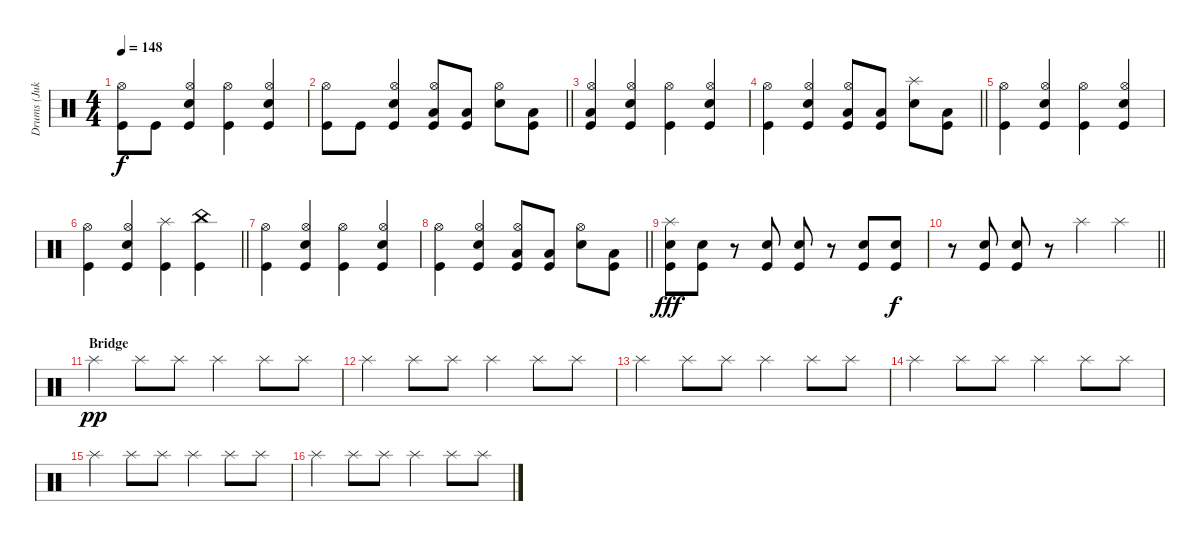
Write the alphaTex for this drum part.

\track ("Drums (Jukka)" "Drums (Juk") {instrument percussion}
\staff {score}
\articulation defaults
\ts (4 4)
\tempo 148
\clef neutral
\ks c
("Kick (hit)" "Hi-Hat (open)").8{dy f} "Kick (hit)".8 ("Kick (hit)" "Snare (hit) 2" "Hi-Hat (open)").4 ("Kick (hit)" "Hi-Hat (open)").4 ("Kick (hit)" "Snare (hit) 2" "Hi-Hat (open)").4 |
\barLineRight lightlight
("Kick (hit)" "Hi-Hat (open)").8 "Kick (hit)".8 ("Kick (hit)" "Snare (hit) 2" "Hi-Hat (open)").4 ("Kick (hit)" "Low Floor Tom (hit)" "Hi-Hat (open)").8 ("Kick (hit)" "Low Floor Tom (hit)").8 ("Snare (hit) 2" "Hi-Hat (open)").8 ("Kick (hit)" "Low Floor Tom (hit)").8 |
("Kick (hit)" "Low Floor Tom (hit)" "Hi-Hat (open)").4 ("Kick (hit)" "Snare (hit) 2" "Hi-Hat (open)").4 ("Kick (hit)" "Hi-Hat (open)").4 ("Kick (hit)" "Snare (hit) 2" "Hi-Hat (open)").4 |
\barLineRight lightlight
("Kick (hit)" "Hi-Hat (open)").4 ("Kick (hit)" "Snare (hit) 2" "Hi-Hat (open)").4 ("Kick (hit)" "Low Floor Tom (hit)" "Hi-Hat (open)").8 ("Kick (hit)" "Low Floor Tom (hit)").8 ("Snare (hit) 2" "Splash (hit)").8 ("Kick (hit)" "Low Floor Tom (hit)").8 |
("Kick (hit)" "Hi-Hat (open)").4 ("Kick (hit)" "Snare (hit) 2" "Hi-Hat (open)").4 ("Kick (hit)" "Hi-Hat (open)").4 ("Kick (hit)" "Snare (hit) 2" "Hi-Hat (open)").4 |
\barLineRight lightlight
("Kick (hit)" "Hi-Hat (open)").4 ("Kick (hit)" "Snare (hit) 2" "Hi-Hat (open)").4 ("Kick (hit)" "Splash (hit)").4 ("Kick (hit)" "China (hit)").4 |
("Kick (hit)" "Hi-Hat (open)").4 ("Kick (hit)" "Snare (hit) 2" "Hi-Hat (open)").4 ("Kick (hit)" "Hi-Hat (open)").4 ("Kick (hit)" "Snare (hit) 2" "Hi-Hat (open)").4 |
\barLineRight lightlight
("Kick (hit)" "Hi-Hat (open)").4 ("Kick (hit)" "Snare (hit) 2" "Hi-Hat (open)").4 ("Kick (hit)" "Low Floor Tom (hit)" "Hi-Hat (open)").8 ("Kick (hit)" "Low Floor Tom (hit)").8 ("Snare (hit) 2" "Hi-Hat (open)").8 ("Kick (hit)" "Low Floor Tom (hit)").8 |
("Kick (hit)" "Snare (hit) 2" "Splash (hit)").8{dy fff} ("Kick (hit)" "Snare (hit) 2").8 r.8 ("Kick (hit)" "Snare (hit) 2").8 ("Kick (hit)" "Snare (hit) 2").8 r.8 ("Kick (hit)" "Snare (hit) 2").8 ("Kick (hit)" "Snare (hit) 2").8{dy f} |
\barLineRight lightlight
r.8 ("Kick (hit)" "Snare (hit) 2").8 ("Kick (hit)" "Snare (hit) 2").8 r.8 "Splash (hit)".4 "Splash (hit)".4 |
\section ("" "Bridge")
"Splash (hit)".4{dy pp} "Splash (hit)".8 "Splash (hit)".8 "Splash (hit)".4 "Splash (hit)".8 "Splash (hit)".8 |
"Splash (hit)".4 "Splash (hit)".8 "Splash (hit)".8 "Splash (hit)".4 "Splash (hit)".8 "Splash (hit)".8 |
"Splash (hit)".4 "Splash (hit)".8 "Splash (hit)".8 "Splash (hit)".4 "Splash (hit)".8 "Splash (hit)".8 |
"Splash (hit)".4 "Splash (hit)".8 "Splash (hit)".8 "Splash (hit)".4 "Splash (hit)".8 "Splash (hit)".8 |
"Splash (hit)".4 "Splash (hit)".8 "Splash (hit)".8 "Splash (hit)".4 "Splash (hit)".8 "Splash (hit)".8 |
"Splash (hit)".4 "Splash (hit)".8 "Splash (hit)".8 "Splash (hit)".4 "Splash (hit)".8 "Splash (hit)".8
